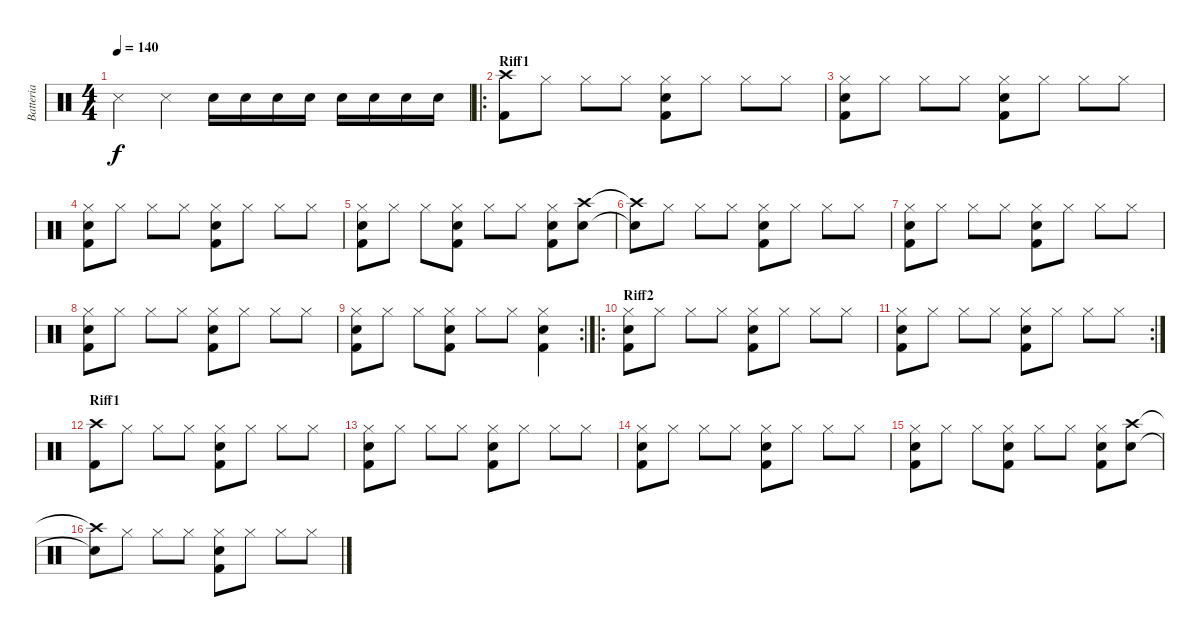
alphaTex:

\track ("Batteria" "Batteria") {instrument percussion}
\staff {score}
\articulation defaults
\ts (4 4)
\tempo 140
\clef neutral
\ks c "Metronome (hit)".4{dy f} "Metronome (hit)".4 "Snare (hit) 2".16 "Snare (hit) 2".16 "Snare (hit) 2".16 "Snare (hit) 2".16 "Snare (hit) 2".16 "Snare (hit) 2".16 "Snare (hit) 2".16 "Snare (hit) 2".16
|
\ro
\section ("" "Riff1")
("Crash high (hit)" "Kick (hit) 2").8 "Hi-Hat (closed)".8 "Hi-Hat (closed)".8 "Hi-Hat (closed)".8 ("Kick (hit) 2" "Hi-Hat (closed)" "Snare (hit) 2").8 "Hi-Hat (closed)".8 "Hi-Hat (closed)".8 "Hi-Hat (closed)".8 |
("Kick (hit) 2" "Hi-Hat (closed)" "Snare (hit) 2").8 "Hi-Hat (closed)".8 "Hi-Hat (closed)".8 "Hi-Hat (closed)".8 ("Kick (hit) 2" "Hi-Hat (closed)" "Snare (hit) 2").8 "Hi-Hat (closed)".8 "Hi-Hat (closed)".8 "Hi-Hat (closed)".8 |
("Kick (hit) 2" "Hi-Hat (closed)" "Snare (hit) 2").8 "Hi-Hat (closed)".8 "Hi-Hat (closed)".8 "Hi-Hat (closed)".8 ("Kick (hit) 2" "Hi-Hat (closed)" "Snare (hit) 2").8 "Hi-Hat (closed)".8 "Hi-Hat (closed)".8 "Hi-Hat (closed)".8 |
("Hi-Hat (closed)" "Snare (hit) 2" "Kick (hit) 2").8 "Hi-Hat (closed)".8 "Hi-Hat (closed)".8 ("Hi-Hat (closed)" "Snare (hit) 2" "Kick (hit) 2").8 "Hi-Hat (closed)".8 "Hi-Hat (closed)".8 ("Hi-Hat (closed)" "Snare (hit) 2" "Kick (hit) 2").8 ("Crash high (hit)" "Snare (hit) 2").8 |
("Crash high (hit)"{t} "Snare (hit) 2"{t}).8 "Hi-Hat (closed)".8 "Hi-Hat (closed)".8 "Hi-Hat (closed)".8 ("Kick (hit) 2" "Hi-Hat (closed)" "Snare (hit) 2").8 "Hi-Hat (closed)".8 "Hi-Hat (closed)".8 "Hi-Hat (closed)".8 |
("Hi-Hat (closed)" "Snare (hit) 2" "Kick (hit) 2").8 "Hi-Hat (closed)".8 "Hi-Hat (closed)".8 "Hi-Hat (closed)".8 ("Kick (hit) 2" "Snare (hit) 2" "Hi-Hat (closed)").8 "Hi-Hat (closed)".8 "Hi-Hat (closed)".8 "Hi-Hat (closed)".8 |
("Hi-Hat (closed)" "Snare (hit) 2" "Kick (hit) 2").8 "Hi-Hat (closed)".8 "Hi-Hat (closed)".8 "Hi-Hat (closed)".8 ("Kick (hit) 2" "Snare (hit) 2" "Hi-Hat (closed)").8 "Hi-Hat (closed)".8 "Hi-Hat (closed)".8 "Hi-Hat (closed)".8 |
\rc 2
("Hi-Hat (closed)" "Snare (hit) 2" "Kick (hit) 2").8 "Hi-Hat (closed)".8 "Hi-Hat (closed)".8 ("Hi-Hat (closed)" "Snare (hit) 2" "Kick (hit) 2").8 "Hi-Hat (closed)".8 "Hi-Hat (closed)".8 ("Hi-Hat (closed)" "Kick (hit) 2" "Snare (hit) 2").4 |
\ro
\section ("" "Riff2")
("Hi-Hat (closed)" "Snare (hit) 2" "Kick (hit) 2").8 "Hi-Hat (closed)".8 "Hi-Hat (closed)".8 "Hi-Hat (closed)".8 ("Kick (hit) 2" "Snare (hit) 2" "Hi-Hat (closed)").8 "Hi-Hat (closed)".8 "Hi-Hat (closed)".8 "Hi-Hat (closed)".8 |
\rc 2
("Hi-Hat (closed)" "Snare (hit) 2" "Kick (hit) 2").8 "Hi-Hat (closed)".8 "Hi-Hat (closed)".8 "Hi-Hat (closed)".8 ("Kick (hit) 2" "Snare (hit) 2" "Hi-Hat (closed)").8 "Hi-Hat (closed)".8 "Hi-Hat (closed)".8 "Hi-Hat (closed)".8 |
\section ("" "Riff1")
("Crash high (hit)" "Kick (hit) 2").8 "Hi-Hat (closed)".8 "Hi-Hat (closed)".8 "Hi-Hat (closed)".8 ("Kick (hit) 2" "Hi-Hat (closed)" "Snare (hit) 2").8 "Hi-Hat (closed)".8 "Hi-Hat (closed)".8 "Hi-Hat (closed)".8 |
("Hi-Hat (closed)" "Snare (hit) 2" "Kick (hit) 2").8 "Hi-Hat (closed)".8 "Hi-Hat (closed)".8 "Hi-Hat (closed)".8 ("Kick (hit) 2" "Snare (hit) 2" "Hi-Hat (closed)").8 "Hi-Hat (closed)".8 "Hi-Hat (closed)".8 "Hi-Hat (closed)".8 |
("Hi-Hat (closed)" "Snare (hit) 2" "Kick (hit) 2").8 "Hi-Hat (closed)".8 "Hi-Hat (closed)".8 "Hi-Hat (closed)".8 ("Kick (hit) 2" "Snare (hit) 2" "Hi-Hat (closed)").8 "Hi-Hat (closed)".8 "Hi-Hat (closed)".8 "Hi-Hat (closed)".8 |
("Hi-Hat (closed)" "Snare (hit) 2" "Kick (hit) 2").8 "Hi-Hat (closed)".8 "Hi-Hat (closed)".8 ("Hi-Hat (closed)" "Snare (hit) 2" "Kick (hit) 2").8 "Hi-Hat (closed)".8 "Hi-Hat (closed)".8 ("Hi-Hat (closed)" "Snare (hit) 2" "Kick (hit) 2").8 ("Crash high (hit)" "Snare (hit) 2").8 |
("Crash high (hit)"{t} "Snare (hit) 2"{t}).8 "Hi-Hat (closed)".8 "Hi-Hat (closed)".8 "Hi-Hat (closed)".8 ("Kick (hit) 2" "Hi-Hat (closed)" "Snare (hit) 2").8 "Hi-Hat (closed)".8 "Hi-Hat (closed)".8 "Hi-Hat (closed)".8
